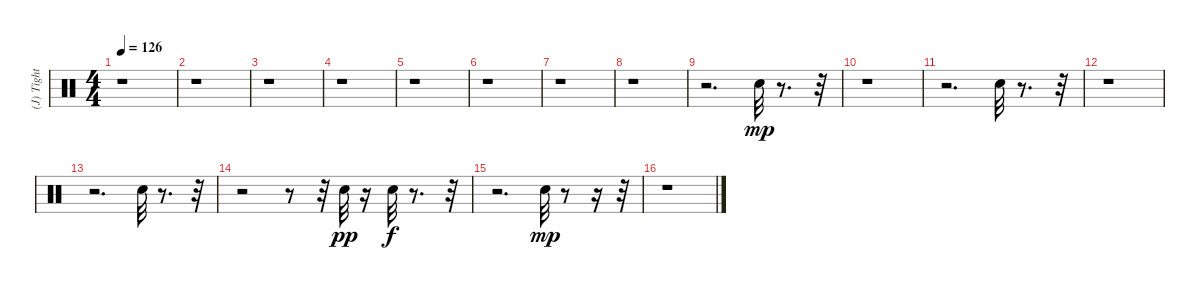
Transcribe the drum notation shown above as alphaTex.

\track ("(J) Tight Snare" "(J) Tight ") {instrument percussion}
\staff {score}
\articulation defaults
\ts (4 4)
\tempo 126
\clef neutral
\ks c
r.1{dy mf} |
r.1 |
r.1 |
r.1 |
r.1 |
r.1 |
r.1 |
r.1 |
r.2{d} "Electric Snare (hit)".32{dy mp} r.8{d} r.32 |
r.1 |
r.2{d} "Electric Snare (hit)".32 r.8{d} r.32 |
r.1 |
r.2{d} "Electric Snare (hit)".32 r.8{d} r.32 |
r.2 r.8 r.32 "Electric Snare (hit)".32{dy pp} r.16 "Electric Snare (hit)".32{dy f} r.8{d} r.32 |
r.2{d} "Electric Snare (hit)".32{dy mp} r.8 r.16 r.32 |
r.1
